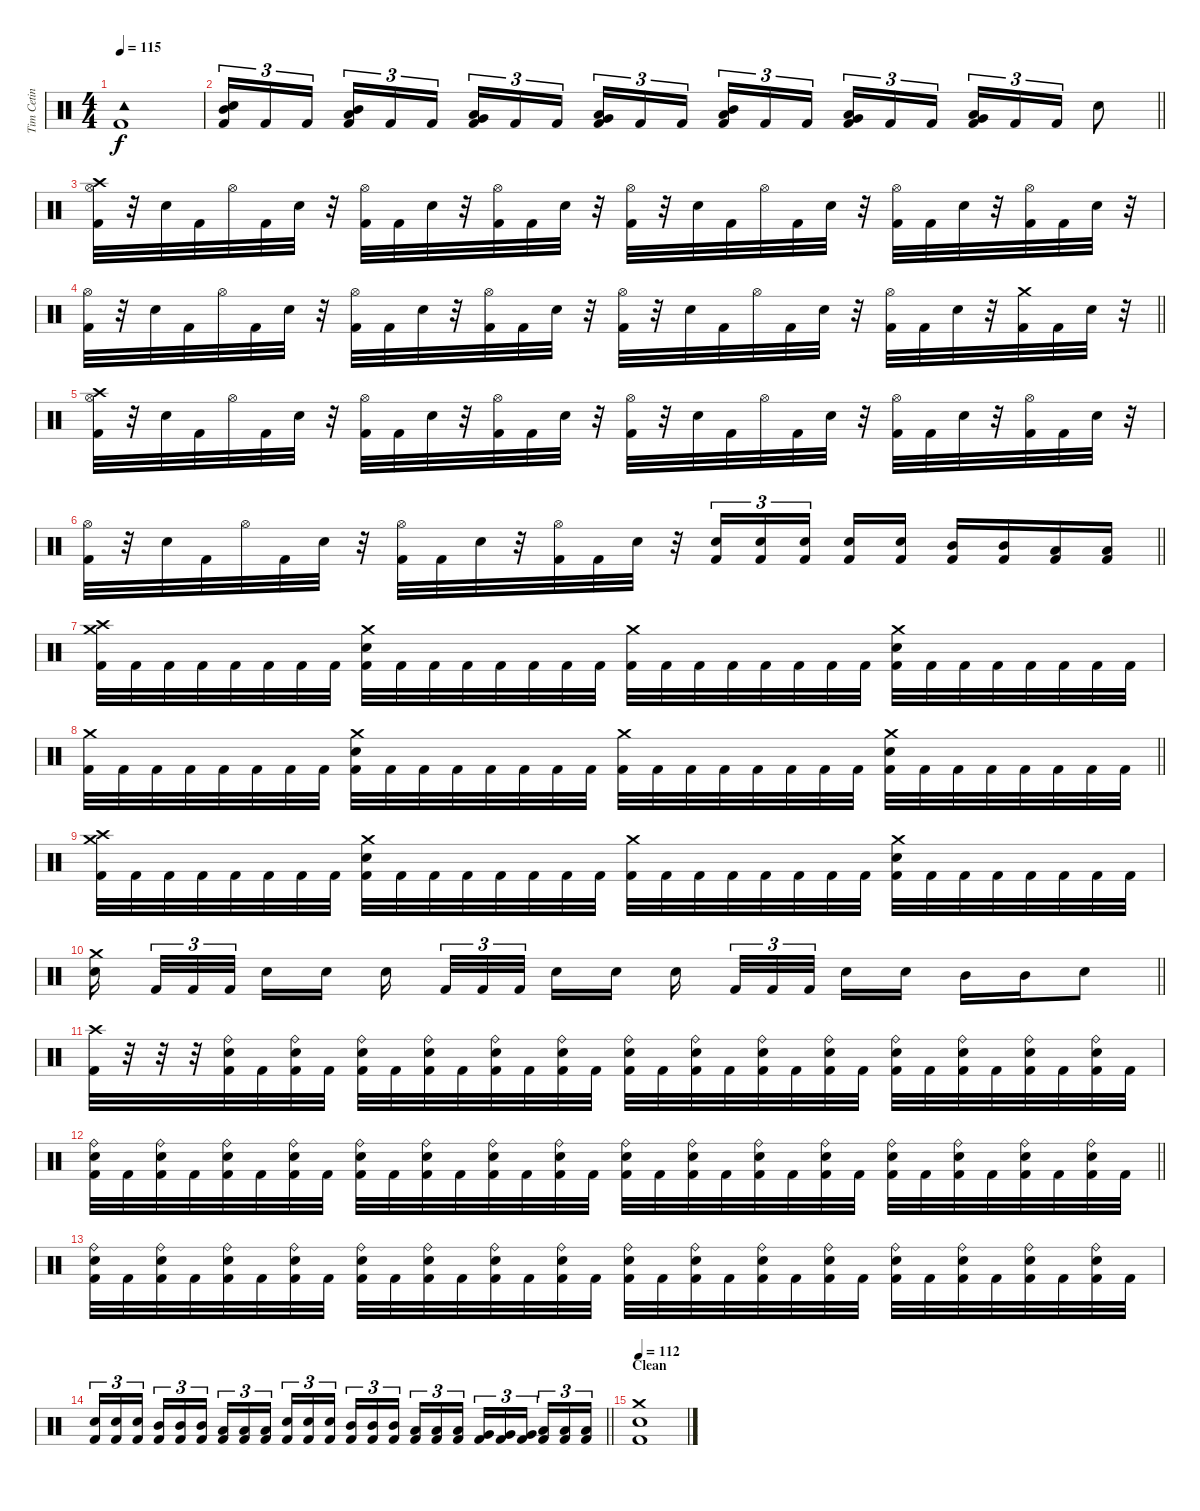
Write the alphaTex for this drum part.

\track ("Tim Cetin" "Tim Cetin") {instrument percussion}
\staff {score}
\articulation defaults
\ts (4 4)
\tempo 115
\clef neutral
\ks c
("Tambourine (hit)" "Kick (hit) 2").1{dy f} |
\barLineRight lightlight
("Mid Tom (hit)" "Snare (hit) 2" "Kick (hit) 2").16{tu (3 2)} "Kick (hit) 2".16{tu (3 2)} "Kick (hit) 2".16{tu (3 2) beam splitsecondary} ("Low Tom (hit)" "Mid Tom (hit)" "Kick (hit) 2").16{tu (3 2)} "Kick (hit) 2".16{tu (3 2)} "Kick (hit) 2".16{tu (3 2)} ("Very Low Tom (hit)" "Low Tom (hit)" "Kick (hit) 2").16{tu (3 2)} "Kick (hit) 2".16{tu (3 2)} "Kick (hit) 2".16{tu (3 2) beam splitsecondary} ("Low Floor Tom (hit)" "Very Low Tom (hit)" "Kick (hit) 2").16{tu (3 2)} "Kick (hit) 2".16{tu (3 2)} "Kick (hit) 2".16{tu (3 2)} ("Mid Tom (hit)" "Low Tom (hit)" "Kick (hit) 2").16{tu (3 2)} "Kick (hit) 2".16{tu (3 2)} "Kick (hit) 2".16{tu (3 2) beam splitsecondary} ("Very Low Tom (hit)" "Low Tom (hit)" "Kick (hit) 2").16{tu (3 2)} "Kick (hit) 2".16{tu (3 2)} "Kick (hit) 2".16{tu (3 2)} ("Low Floor Tom (hit)" "Very Low Tom (hit)" "Kick (hit) 2").16{tu (3 2)} "Kick (hit) 2".16{tu (3 2)} "Kick (hit) 2".16{tu (3 2)} "Snare (hit) 2".8 |
("Crash high (hit)" "Hi-Hat (open)" "Kick (hit) 2").32 r.32 "Snare (hit) 2".32 "Kick (hit) 2".32 "Hi-Hat (open)".32 "Kick (hit) 2".32 "Snare (hit) 2".32 r.32 ("Hi-Hat (open)" "Kick (hit) 2").32 "Kick (hit) 2".32 "Snare (hit) 2".32 r.32 ("Hi-Hat (open)" "Kick (hit) 2").32 "Kick (hit) 2".32 "Snare (hit) 2".32 r.32 ("Hi-Hat (open)" "Kick (hit) 2").32 r.32 "Snare (hit) 2".32 "Kick (hit) 2".32 "Hi-Hat (open)".32 "Kick (hit) 2".32 "Snare (hit) 2".32 r.32 ("Hi-Hat (open)" "Kick (hit) 2").32 "Kick (hit) 2".32 "Snare (hit) 2".32 r.32 ("Hi-Hat (open)" "Kick (hit) 2").32 "Kick (hit) 2".32 "Snare (hit) 2".32 r.32 |
\barLineRight lightlight
("Hi-Hat (open)" "Kick (hit) 2").32 r.32 "Snare (hit) 2".32 "Kick (hit) 2".32 "Hi-Hat (open)".32 "Kick (hit) 2".32 "Snare (hit) 2".32 r.32 ("Hi-Hat (open)" "Kick (hit) 2").32 "Kick (hit) 2".32 "Snare (hit) 2".32 r.32 ("Hi-Hat (open)" "Kick (hit) 2").32 "Kick (hit) 2".32 "Snare (hit) 2".32 r.32 ("Hi-Hat (open)" "Kick (hit) 2").32 r.32 "Snare (hit) 2".32 "Kick (hit) 2".32 "Hi-Hat (open)".32 "Kick (hit) 2".32 "Snare (hit) 2".32 r.32 ("Hi-Hat (open)" "Kick (hit) 2").32 "Kick (hit) 2".32 "Snare (hit) 2".32 r.32 ("Crash medium (hit)" "Kick (hit) 2").32 "Kick (hit) 2".32 "Snare (hit) 2".32 r.32 |
("Crash high (hit)" "Hi-Hat (open)" "Kick (hit) 2").32 r.32 "Snare (hit) 2".32 "Kick (hit) 2".32 "Hi-Hat (open)".32 "Kick (hit) 2".32 "Snare (hit) 2".32 r.32 ("Hi-Hat (open)" "Kick (hit) 2").32 "Kick (hit) 2".32 "Snare (hit) 2".32 r.32 ("Hi-Hat (open)" "Kick (hit) 2").32 "Kick (hit) 2".32 "Snare (hit) 2".32 r.32 ("Hi-Hat (open)" "Kick (hit) 2").32 r.32 "Snare (hit) 2".32 "Kick (hit) 2".32 "Hi-Hat (open)".32 "Kick (hit) 2".32 "Snare (hit) 2".32 r.32 ("Hi-Hat (open)" "Kick (hit) 2").32 "Kick (hit) 2".32 "Snare (hit) 2".32 r.32 ("Hi-Hat (open)" "Kick (hit) 2").32 "Kick (hit) 2".32 "Snare (hit) 2".32 r.32 |
\barLineRight lightlight
("Hi-Hat (open)" "Kick (hit) 2").32 r.32 "Snare (hit) 2".32 "Kick (hit) 2".32 "Hi-Hat (open)".32 "Kick (hit) 2".32 "Snare (hit) 2".32 r.32 ("Hi-Hat (open)" "Kick (hit) 2").32 "Kick (hit) 2".32 "Snare (hit) 2".32 r.32 ("Hi-Hat (open)" "Kick (hit) 2").32 "Kick (hit) 2".32 "Snare (hit) 2".32 r.32 ("Snare (hit) 2" "Kick (hit) 2").16{tu (3 2)} ("Snare (hit) 2" "Kick (hit) 2").16{tu (3 2)} ("Snare (hit) 2" "Kick (hit) 2").16{tu (3 2) beam splitsecondary} ("Snare (hit) 2" "Kick (hit) 2").16 ("Snare (hit) 2" "Kick (hit) 2").16 ("Mid Tom (hit)" "Kick (hit) 2").16 ("Mid Tom (hit)" "Kick (hit) 2").16 ("Low Tom (hit)" "Kick (hit) 2").16 ("Low Tom (hit)" "Kick (hit) 2").16 |
("Crash medium (hit)" "Crash high (hit)" "Kick (hit) 2").32 "Kick (hit) 2".32 "Kick (hit) 2".32 "Kick (hit) 2".32 "Kick (hit) 2".32 "Kick (hit) 2".32 "Kick (hit) 2".32 "Kick (hit) 2".32 ("Crash medium (hit)" "Snare (hit) 2" "Kick (hit) 2").32 "Kick (hit) 2".32 "Kick (hit) 2".32 "Kick (hit) 2".32 "Kick (hit) 2".32 "Kick (hit) 2".32 "Kick (hit) 2".32 "Kick (hit) 2".32 ("Crash medium (hit)" "Kick (hit) 2").32 "Kick (hit) 2".32 "Kick (hit) 2".32 "Kick (hit) 2".32 "Kick (hit) 2".32 "Kick (hit) 2".32 "Kick (hit) 2".32 "Kick (hit) 2".32 ("Crash medium (hit)" "Snare (hit) 2" "Kick (hit) 2").32 "Kick (hit) 2".32 "Kick (hit) 2".32 "Kick (hit) 2".32 "Kick (hit) 2".32 "Kick (hit) 2".32 "Kick (hit) 2".32 "Kick (hit) 2".32 |
\barLineRight lightlight
("Crash medium (hit)" "Kick (hit) 2").32 "Kick (hit) 2".32 "Kick (hit) 2".32 "Kick (hit) 2".32 "Kick (hit) 2".32 "Kick (hit) 2".32 "Kick (hit) 2".32 "Kick (hit) 2".32 ("Crash medium (hit)" "Snare (hit) 2" "Kick (hit) 2").32 "Kick (hit) 2".32 "Kick (hit) 2".32 "Kick (hit) 2".32 "Kick (hit) 2".32 "Kick (hit) 2".32 "Kick (hit) 2".32 "Kick (hit) 2".32 ("Crash medium (hit)" "Kick (hit) 2").32 "Kick (hit) 2".32 "Kick (hit) 2".32 "Kick (hit) 2".32 "Kick (hit) 2".32 "Kick (hit) 2".32 "Kick (hit) 2".32 "Kick (hit) 2".32 ("Crash medium (hit)" "Snare (hit) 2" "Kick (hit) 2").32 "Kick (hit) 2".32 "Kick (hit) 2".32 "Kick (hit) 2".32 "Kick (hit) 2".32 "Kick (hit) 2".32 "Kick (hit) 2".32 "Kick (hit) 2".32 |
("Crash medium (hit)" "Crash high (hit)" "Kick (hit) 2").32 "Kick (hit) 2".32 "Kick (hit) 2".32 "Kick (hit) 2".32 "Kick (hit) 2".32 "Kick (hit) 2".32 "Kick (hit) 2".32 "Kick (hit) 2".32 ("Crash medium (hit)" "Snare (hit) 2" "Kick (hit) 2").32 "Kick (hit) 2".32 "Kick (hit) 2".32 "Kick (hit) 2".32 "Kick (hit) 2".32 "Kick (hit) 2".32 "Kick (hit) 2".32 "Kick (hit) 2".32 ("Crash medium (hit)" "Kick (hit) 2").32 "Kick (hit) 2".32 "Kick (hit) 2".32 "Kick (hit) 2".32 "Kick (hit) 2".32 "Kick (hit) 2".32 "Kick (hit) 2".32 "Kick (hit) 2".32 ("Crash medium (hit)" "Snare (hit) 2" "Kick (hit) 2").32 "Kick (hit) 2".32 "Kick (hit) 2".32 "Kick (hit) 2".32 "Kick (hit) 2".32 "Kick (hit) 2".32 "Kick (hit) 2".32 "Kick (hit) 2".32 |
\barLineRight lightlight
("Crash medium (hit)" "Snare (hit) 2").16{beam splitsecondary} "Kick (hit) 2".32{tu (3 2)} "Kick (hit) 2".32{tu (3 2)} "Kick (hit) 2".32{tu (3 2) beam splitsecondary} "Snare (hit) 2".16 "Snare (hit) 2".16 "Snare (hit) 2".16{beam splitsecondary} "Kick (hit) 2".32{tu (3 2)} "Kick (hit) 2".32{tu (3 2)} "Kick (hit) 2".32{tu (3 2) beam splitsecondary} "Snare (hit) 2".16 "Snare (hit) 2".16 "Snare (hit) 2".16{beam splitsecondary} "Kick (hit) 2".32{tu (3 2)} "Kick (hit) 2".32{tu (3 2)} "Kick (hit) 2".32{tu (3 2) beam splitsecondary} "Snare (hit) 2".16 "Snare (hit) 2".16 "Mid Tom (hit)".16 "Mid Tom (hit)".16 "Snare (hit) 2".8 |
("Crash high (hit)" "Kick (hit) 2").32 r.32 r.32 r.32 ("Ride (bell)" "Snare (hit) 2" "Kick (hit) 2").32 "Kick (hit) 2".32 ("Ride (bell)" "Snare (hit) 2" "Kick (hit) 2").32 "Kick (hit) 2".32 ("Ride (bell)" "Snare (hit) 2" "Kick (hit) 2").32 "Kick (hit) 2".32 ("Ride (bell)" "Snare (hit) 2" "Kick (hit) 2").32 "Kick (hit) 2".32 ("Ride (bell)" "Snare (hit) 2" "Kick (hit) 2").32 "Kick (hit) 2".32 ("Ride (bell)" "Snare (hit) 2" "Kick (hit) 2").32 "Kick (hit) 2".32 ("Ride (bell)" "Snare (hit) 2" "Kick (hit) 2").32 "Kick (hit) 2".32 ("Ride (bell)" "Snare (hit) 2" "Kick (hit) 2").32 "Kick (hit) 2".32 ("Ride (bell)" "Snare (hit) 2" "Kick (hit) 2").32 "Kick (hit) 2".32 ("Ride (bell)" "Snare (hit) 2" "Kick (hit) 2").32 "Kick (hit) 2".32 ("Ride (bell)" "Snare (hit) 2" "Kick (hit) 2").32 "Kick (hit) 2".32 ("Ride (bell)" "Snare (hit) 2" "Kick (hit) 2").32 "Kick (hit) 2".32 ("Ride (bell)" "Snare (hit) 2" "Kick (hit) 2").32 "Kick (hit) 2".32 ("Ride (bell)" "Snare (hit) 2" "Kick (hit) 2").32 "Kick (hit) 2".32 |
\barLineRight lightlight
("Ride (bell)" "Snare (hit) 2" "Kick (hit) 2").32 "Kick (hit) 2".32 ("Ride (bell)" "Snare (hit) 2" "Kick (hit) 2").32 "Kick (hit) 2".32 ("Ride (bell)" "Snare (hit) 2" "Kick (hit) 2").32 "Kick (hit) 2".32 ("Ride (bell)" "Snare (hit) 2" "Kick (hit) 2").32 "Kick (hit) 2".32 ("Ride (bell)" "Snare (hit) 2" "Kick (hit) 2").32 "Kick (hit) 2".32 ("Ride (bell)" "Snare (hit) 2" "Kick (hit) 2").32 "Kick (hit) 2".32 ("Ride (bell)" "Snare (hit) 2" "Kick (hit) 2").32 "Kick (hit) 2".32 ("Ride (bell)" "Snare (hit) 2" "Kick (hit) 2").32 "Kick (hit) 2".32 ("Ride (bell)" "Snare (hit) 2" "Kick (hit) 2").32 "Kick (hit) 2".32 ("Ride (bell)" "Snare (hit) 2" "Kick (hit) 2").32 "Kick (hit) 2".32 ("Ride (bell)" "Snare (hit) 2" "Kick (hit) 2").32 "Kick (hit) 2".32 ("Ride (bell)" "Snare (hit) 2" "Kick (hit) 2").32 "Kick (hit) 2".32 ("Ride (bell)" "Snare (hit) 2" "Kick (hit) 2").32 "Kick (hit) 2".32 ("Ride (bell)" "Snare (hit) 2" "Kick (hit) 2").32 "Kick (hit) 2".32 ("Ride (bell)" "Snare (hit) 2" "Kick (hit) 2").32 "Kick (hit) 2".32 ("Ride (bell)" "Snare (hit) 2" "Kick (hit) 2").32 "Kick (hit) 2".32 |
("Ride (bell)" "Snare (hit) 2" "Kick (hit) 2").32 "Kick (hit) 2".32 ("Ride (bell)" "Snare (hit) 2" "Kick (hit) 2").32 "Kick (hit) 2".32 ("Ride (bell)" "Snare (hit) 2" "Kick (hit) 2").32 "Kick (hit) 2".32 ("Ride (bell)" "Snare (hit) 2" "Kick (hit) 2").32 "Kick (hit) 2".32 ("Ride (bell)" "Snare (hit) 2" "Kick (hit) 2").32 "Kick (hit) 2".32 ("Ride (bell)" "Snare (hit) 2" "Kick (hit) 2").32 "Kick (hit) 2".32 ("Ride (bell)" "Snare (hit) 2" "Kick (hit) 2").32 "Kick (hit) 2".32 ("Ride (bell)" "Snare (hit) 2" "Kick (hit) 2").32 "Kick (hit) 2".32 ("Ride (bell)" "Snare (hit) 2" "Kick (hit) 2").32 "Kick (hit) 2".32 ("Ride (bell)" "Snare (hit) 2" "Kick (hit) 2").32 "Kick (hit) 2".32 ("Ride (bell)" "Snare (hit) 2" "Kick (hit) 2").32 "Kick (hit) 2".32 ("Ride (bell)" "Snare (hit) 2" "Kick (hit) 2").32 "Kick (hit) 2".32 ("Ride (bell)" "Snare (hit) 2" "Kick (hit) 2").32 "Kick (hit) 2".32 ("Ride (bell)" "Snare (hit) 2" "Kick (hit) 2").32 "Kick (hit) 2".32 ("Ride (bell)" "Snare (hit) 2" "Kick (hit) 2").32 "Kick (hit) 2".32 ("Ride (bell)" "Snare (hit) 2" "Kick (hit) 2").32 "Kick (hit) 2".32 |
\barLineRight lightlight
("Snare (hit) 2" "Kick (hit) 2").16{tu (3 2)} ("Snare (hit) 2" "Kick (hit) 2").16{tu (3 2)} ("Snare (hit) 2" "Kick (hit) 2").16{tu (3 2) beam splitsecondary} ("Mid Tom (hit)" "Kick (hit) 2").16{tu (3 2)} ("Mid Tom (hit)" "Kick (hit) 2").16{tu (3 2)} ("Mid Tom (hit)" "Kick (hit) 2").16{tu (3 2)} ("Low Tom (hit)" "Kick (hit) 2").16{tu (3 2)} ("Low Tom (hit)" "Kick (hit) 2").16{tu (3 2)} ("Low Tom (hit)" "Kick (hit) 2").16{tu (3 2) beam splitsecondary} ("Snare (hit) 2" "Kick (hit) 2").16{tu (3 2)} ("Snare (hit) 2" "Kick (hit) 2").16{tu (3 2)} ("Snare (hit) 2" "Kick (hit) 2").16{tu (3 2)} ("Mid Tom (hit)" "Kick (hit) 2").16{tu (3 2)} ("Mid Tom (hit)" "Kick (hit) 2").16{tu (3 2)} ("Mid Tom (hit)" "Kick (hit) 2").16{tu (3 2) beam splitsecondary} ("Low Tom (hit)" "Kick (hit) 2").16{tu (3 2)} ("Low Tom (hit)" "Kick (hit) 2").16{tu (3 2)} ("Low Tom (hit)" "Kick (hit) 2").16{tu (3 2)} ("Very Low Tom (hit)" "Kick (hit) 2").16{tu (3 2)} ("Very Low Tom (hit)" "Kick (hit) 2").16{tu (3 2)} ("Very Low Tom (hit)" "Kick (hit) 2").16{tu (3 2) beam splitsecondary} ("Low Floor Tom (hit)" "Kick (hit) 2").16{tu (3 2)} ("Low Floor Tom (hit)" "Kick (hit) 2").16{tu (3 2)} ("Low Floor Tom (hit)" "Kick (hit) 2").16{tu (3 2)} |
\section ("" "Clean")
\tempo 112
("Crash medium (hit)" "Snare (hit) 2" "Kick (hit) 2").1
